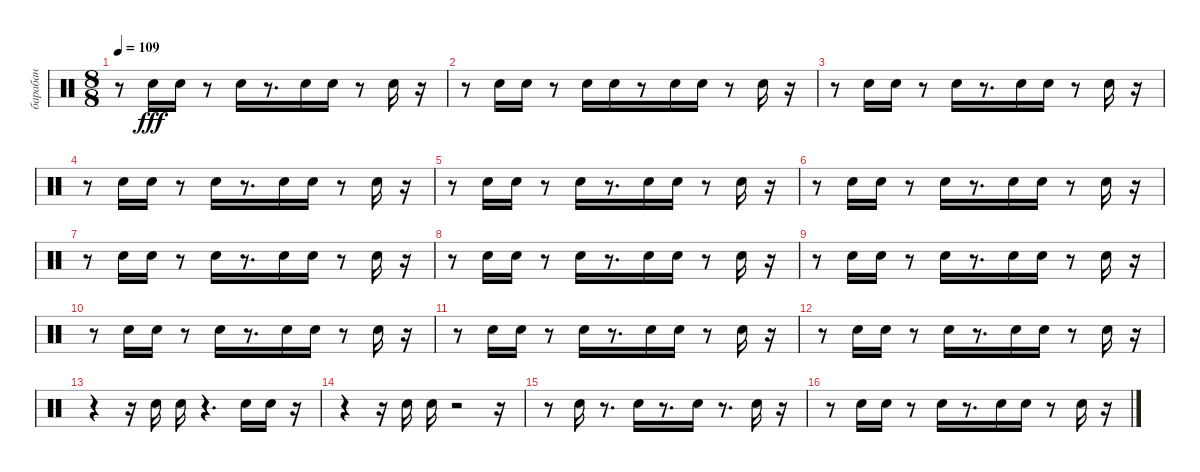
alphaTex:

\track ("барабан" "барабан") {instrument percussion}
\staff {score}
\articulation defaults
\ts (8 8)
\tempo 109
\clef neutral
\ks c
r.8{dy fff} "Electric Snare (hit)".16 "Electric Snare (hit)".16 r.8 "Electric Snare (hit)".16 r.8{d} "Electric Snare (hit)".16 "Electric Snare (hit)".16 r.8 "Electric Snare (hit)".16 r.16 |
r.8 "Electric Snare (hit)".16 "Electric Snare (hit)".16 r.8 "Electric Snare (hit)".16 "Electric Snare (hit)".16 r.8 "Electric Snare (hit)".16 "Electric Snare (hit)".16 r.8 "Electric Snare (hit)".16 r.16 |
r.8 "Electric Snare (hit)".16 "Electric Snare (hit)".16 r.8 "Electric Snare (hit)".16 r.8{d} "Electric Snare (hit)".16 "Electric Snare (hit)".16 r.8 "Electric Snare (hit)".16 r.16 |
r.8 "Electric Snare (hit)".16 "Electric Snare (hit)".16 r.8 "Electric Snare (hit)".16 r.8{d} "Electric Snare (hit)".16 "Electric Snare (hit)".16 r.8 "Electric Snare (hit)".16 r.16 |
r.8 "Electric Snare (hit)".16 "Electric Snare (hit)".16 r.8 "Electric Snare (hit)".16 r.8{d} "Electric Snare (hit)".16 "Electric Snare (hit)".16 r.8 "Electric Snare (hit)".16 r.16 |
r.8 "Electric Snare (hit)".16 "Electric Snare (hit)".16 r.8 "Electric Snare (hit)".16 r.8{d} "Electric Snare (hit)".16 "Electric Snare (hit)".16 r.8 "Electric Snare (hit)".16 r.16 |
r.8 "Electric Snare (hit)".16 "Electric Snare (hit)".16 r.8 "Electric Snare (hit)".16 r.8{d} "Electric Snare (hit)".16 "Electric Snare (hit)".16 r.8 "Electric Snare (hit)".16 r.16 |
r.8 "Electric Snare (hit)".16 "Electric Snare (hit)".16 r.8 "Electric Snare (hit)".16 r.8{d} "Electric Snare (hit)".16 "Electric Snare (hit)".16 r.8 "Electric Snare (hit)".16 r.16 |
r.8 "Electric Snare (hit)".16 "Electric Snare (hit)".16 r.8 "Electric Snare (hit)".16 r.8{d} "Electric Snare (hit)".16 "Electric Snare (hit)".16 r.8 "Electric Snare (hit)".16 r.16 |
r.8 "Electric Snare (hit)".16 "Electric Snare (hit)".16 r.8 "Electric Snare (hit)".16 r.8{d} "Electric Snare (hit)".16 "Electric Snare (hit)".16 r.8 "Electric Snare (hit)".16 r.16 |
r.8 "Electric Snare (hit)".16 "Electric Snare (hit)".16 r.8 "Electric Snare (hit)".16 r.8{d} "Electric Snare (hit)".16 "Electric Snare (hit)".16 r.8 "Electric Snare (hit)".16 r.16 |
r.8 "Electric Snare (hit)".16 "Electric Snare (hit)".16 r.8 "Electric Snare (hit)".16 r.8{d} "Electric Snare (hit)".16 "Electric Snare (hit)".16 r.8 "Electric Snare (hit)".16 r.16 |
r.4 r.16 "Electric Snare (hit)".16 "Electric Snare (hit)".16 r.4{d} "Electric Snare (hit)".16 "Electric Snare (hit)".16 r.16 |
r.4 r.16 "Electric Snare (hit)".16 "Electric Snare (hit)".16 r.2 r.16 |
r.8 "Electric Snare (hit)".16 r.8{d} "Electric Snare (hit)".16 r.8{d} "Electric Snare (hit)".16 r.8{d} "Electric Snare (hit)".16 r.16 |
r.8 "Electric Snare (hit)".16 "Electric Snare (hit)".16 r.8 "Electric Snare (hit)".16 r.8{d} "Electric Snare (hit)".16 "Electric Snare (hit)".16 r.8 "Electric Snare (hit)".16 r.16
